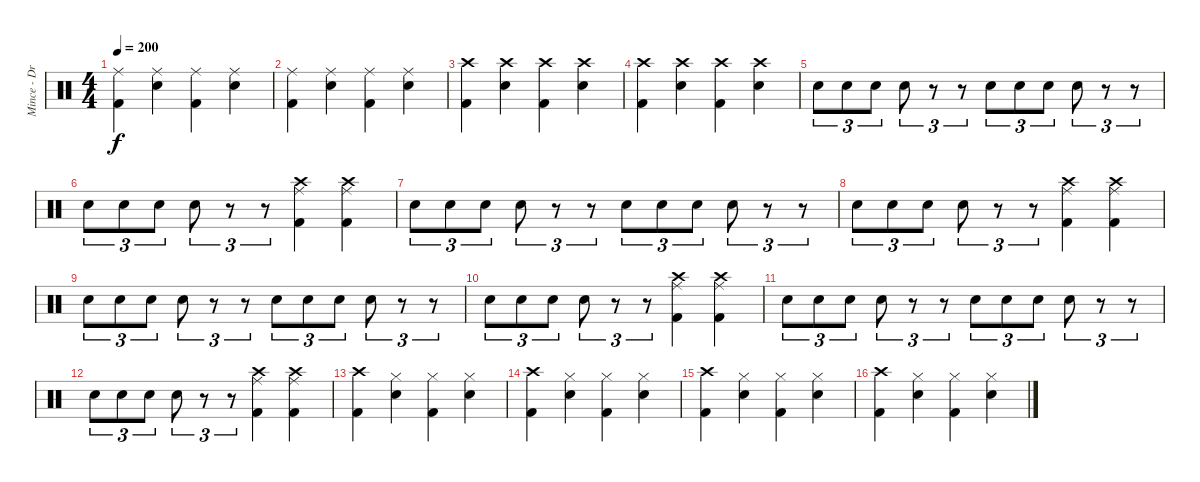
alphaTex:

\track ("Mince - Drums" "Mince - Dr") {instrument percussion}
\staff {score}
\articulation defaults
\ts (4 4)
\tempo 200
\clef neutral
\ks c
("Ride (middle)" "Kick (hit) 2").4{dy f} ("Ride (middle)" "Electric Snare (hit)").4 ("Ride (middle)" "Kick (hit) 2").4 ("Ride (middle)" "Electric Snare (hit)").4 |
("Ride (middle)" "Kick (hit) 2").4 ("Ride (middle)" "Electric Snare (hit)").4 ("Ride (middle)" "Kick (hit) 2").4 ("Ride (middle)" "Electric Snare (hit)").4 |
("Crash high (hit)" "Kick (hit) 2").4 ("Crash high (hit)" "Electric Snare (hit)").4 ("Crash high (hit)" "Kick (hit) 2").4 ("Crash high (hit)" "Electric Snare (hit)").4 |
("Crash high (hit)" "Kick (hit) 2").4 ("Crash high (hit)" "Electric Snare (hit)").4 ("Crash high (hit)" "Kick (hit) 2").4 ("Crash high (hit)" "Electric Snare (hit)").4 |
"Electric Snare (hit)".8{tu (3 2)} "Electric Snare (hit)".8{tu (3 2)} "Electric Snare (hit)".8{tu (3 2)} "Electric Snare (hit)".8{tu (3 2)} r.8{tu (3 2)} r.8{tu (3 2)} "Electric Snare (hit)".8{tu (3 2)} "Electric Snare (hit)".8{tu (3 2)} "Electric Snare (hit)".8{tu (3 2)} "Electric Snare (hit)".8{tu (3 2)} r.8{tu (3 2)} r.8{tu (3 2)} |
"Electric Snare (hit)".8{tu (3 2)} "Electric Snare (hit)".8{tu (3 2)} "Electric Snare (hit)".8{tu (3 2)} "Electric Snare (hit)".8{tu (3 2)} r.8{tu (3 2)} r.8{tu (3 2)} ("Crash high (hit)" "Ride (middle)" "Kick (hit) 2").4 ("Crash high (hit)" "Ride (middle)" "Kick (hit) 2").4 |
"Electric Snare (hit)".8{tu (3 2)} "Electric Snare (hit)".8{tu (3 2)} "Electric Snare (hit)".8{tu (3 2)} "Electric Snare (hit)".8{tu (3 2)} r.8{tu (3 2)} r.8{tu (3 2)} "Electric Snare (hit)".8{tu (3 2)} "Electric Snare (hit)".8{tu (3 2)} "Electric Snare (hit)".8{tu (3 2)} "Electric Snare (hit)".8{tu (3 2)} r.8{tu (3 2)} r.8{tu (3 2)} |
"Electric Snare (hit)".8{tu (3 2)} "Electric Snare (hit)".8{tu (3 2)} "Electric Snare (hit)".8{tu (3 2)} "Electric Snare (hit)".8{tu (3 2)} r.8{tu (3 2)} r.8{tu (3 2)} ("Crash high (hit)" "Ride (middle)" "Kick (hit) 2").4 ("Crash high (hit)" "Ride (middle)" "Kick (hit) 2").4 |
"Electric Snare (hit)".8{tu (3 2)} "Electric Snare (hit)".8{tu (3 2)} "Electric Snare (hit)".8{tu (3 2)} "Electric Snare (hit)".8{tu (3 2)} r.8{tu (3 2)} r.8{tu (3 2)} "Electric Snare (hit)".8{tu (3 2)} "Electric Snare (hit)".8{tu (3 2)} "Electric Snare (hit)".8{tu (3 2)} "Electric Snare (hit)".8{tu (3 2)} r.8{tu (3 2)} r.8{tu (3 2)} |
"Electric Snare (hit)".8{tu (3 2)} "Electric Snare (hit)".8{tu (3 2)} "Electric Snare (hit)".8{tu (3 2)} "Electric Snare (hit)".8{tu (3 2)} r.8{tu (3 2)} r.8{tu (3 2)} ("Crash high (hit)" "Ride (middle)" "Kick (hit) 2").4 ("Crash high (hit)" "Ride (middle)" "Kick (hit) 2").4 |
"Electric Snare (hit)".8{tu (3 2)} "Electric Snare (hit)".8{tu (3 2)} "Electric Snare (hit)".8{tu (3 2)} "Electric Snare (hit)".8{tu (3 2)} r.8{tu (3 2)} r.8{tu (3 2)} "Electric Snare (hit)".8{tu (3 2)} "Electric Snare (hit)".8{tu (3 2)} "Electric Snare (hit)".8{tu (3 2)} "Electric Snare (hit)".8{tu (3 2)} r.8{tu (3 2)} r.8{tu (3 2)} |
"Electric Snare (hit)".8{tu (3 2)} "Electric Snare (hit)".8{tu (3 2)} "Electric Snare (hit)".8{tu (3 2)} "Electric Snare (hit)".8{tu (3 2)} r.8{tu (3 2)} r.8{tu (3 2)} ("Crash high (hit)" "Ride (middle)" "Kick (hit) 2").4 ("Crash high (hit)" "Ride (middle)" "Kick (hit) 2").4 |
("Crash high (hit)" "Kick (hit) 2").4 ("Hi-Hat (closed)" "Electric Snare (hit)").4 ("Hi-Hat (closed)" "Kick (hit) 2").4 ("Hi-Hat (closed)" "Electric Snare (hit)").4 |
("Crash high (hit)" "Kick (hit) 2").4 ("Hi-Hat (closed)" "Electric Snare (hit)").4 ("Hi-Hat (closed)" "Kick (hit) 2").4 ("Hi-Hat (closed)" "Electric Snare (hit)").4 |
("Crash high (hit)" "Kick (hit) 2").4 ("Hi-Hat (closed)" "Electric Snare (hit)").4 ("Hi-Hat (closed)" "Kick (hit) 2").4 ("Hi-Hat (closed)" "Electric Snare (hit)").4 |
("Crash high (hit)" "Kick (hit) 2").4 ("Hi-Hat (closed)" "Electric Snare (hit)").4 ("Hi-Hat (closed)" "Kick (hit) 2").4 ("Hi-Hat (closed)" "Electric Snare (hit)").4
